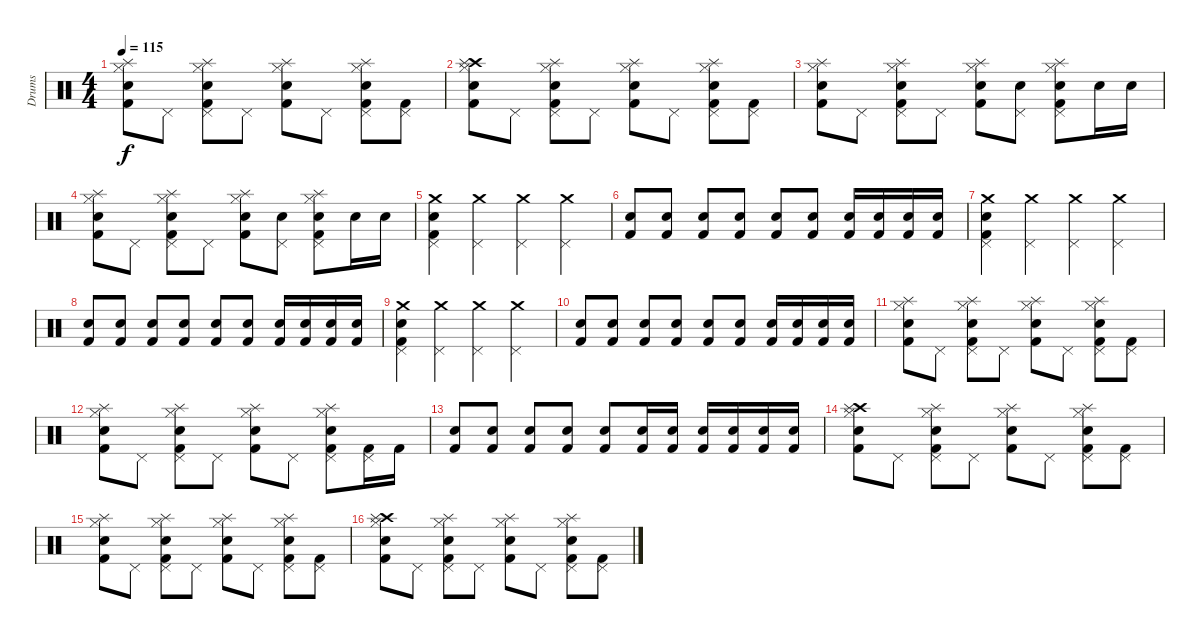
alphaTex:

\track ("Drums" "Drums") {instrument percussion}
\staff {score}
\articulation defaults
\ts (4 4)
\tempo 115
\clef neutral
\ks c
("Hi-Hat (closed)" "Snare (hit) 2" "Splash (hit)" "Kick (hit) 2").8{dy f} "Pedal Hi-Hat (hit)".8 ("Hi-Hat (closed)" "Pedal Hi-Hat (hit)" "Electric Snare (hit)" "Splash (hit)" "Kick (hit) 2").8 "Pedal Hi-Hat (hit)".8 ("Hi-Hat (closed)" "Snare (hit) 2" "Splash (hit)" "Kick (hit) 2").8 "Pedal Hi-Hat (hit)".8 ("Hi-Hat (closed)" "Pedal Hi-Hat (hit)" "Electric Snare (hit)" "Splash (hit)" "Kick (hit) 2").8 ("Pedal Hi-Hat (hit)" "Kick (hit) 2").8 |
("Hi-Hat (closed)" "Crash high (hit)" "Snare (hit) 2" "Splash (hit)" "Kick (hit) 2").8 "Pedal Hi-Hat (hit)".8 ("Hi-Hat (closed)" "Pedal Hi-Hat (hit)" "Electric Snare (hit)" "Splash (hit)" "Kick (hit) 2").8 "Pedal Hi-Hat (hit)".8 ("Hi-Hat (closed)" "Snare (hit) 2" "Splash (hit)" "Kick (hit) 2").8 "Pedal Hi-Hat (hit)".8 ("Hi-Hat (closed)" "Pedal Hi-Hat (hit)" "Electric Snare (hit)" "Splash (hit)" "Kick (hit) 2").8 ("Pedal Hi-Hat (hit)" "Kick (hit) 2").8 |
("Hi-Hat (closed)" "Snare (hit) 2" "Splash (hit)" "Kick (hit) 2").8 "Pedal Hi-Hat (hit)".8 ("Hi-Hat (closed)" "Pedal Hi-Hat (hit)" "Electric Snare (hit)" "Splash (hit)" "Kick (hit) 2").8 "Pedal Hi-Hat (hit)".8 ("Hi-Hat (closed)" "Snare (hit) 2" "Splash (hit)" "Kick (hit) 2").8 ("Pedal Hi-Hat (hit)" "Snare (hit) 2").8 ("Hi-Hat (closed)" "Pedal Hi-Hat (hit)" "Electric Snare (hit)" "Splash (hit)" "Kick (hit) 2").8 "Snare (hit) 2".16 "Electric Snare (hit)".16 |
("Hi-Hat (closed)" "Snare (hit) 2" "Splash (hit)" "Kick (hit) 2").8 "Pedal Hi-Hat (hit)".8 ("Hi-Hat (closed)" "Pedal Hi-Hat (hit)" "Electric Snare (hit)" "Splash (hit)" "Kick (hit) 2").8 "Pedal Hi-Hat (hit)".8 ("Hi-Hat (closed)" "Snare (hit) 2" "Splash (hit)" "Kick (hit) 2").8 ("Pedal Hi-Hat (hit)" "Snare (hit) 2").8 ("Hi-Hat (closed)" "Pedal Hi-Hat (hit)" "Electric Snare (hit)" "Splash (hit)" "Kick (hit) 2").8 "Snare (hit) 2".16 "Electric Snare (hit)".16 |
("Pedal Hi-Hat (hit)" "Crash medium (hit)" "Snare (hit) 2" "Kick (hit) 2").4 ("Pedal Hi-Hat (hit)" "Crash medium (hit)").4 ("Pedal Hi-Hat (hit)" "Crash medium (hit)").4 ("Pedal Hi-Hat (hit)" "Crash medium (hit)").4 |
("Snare (hit) 2" "Kick (hit) 2").8 ("Snare (hit) 2" "Kick (hit) 2").8 ("Snare (hit) 2" "Kick (hit) 2").8 ("Snare (hit) 2" "Kick (hit) 2").8 ("Snare (hit) 2" "Kick (hit) 2").8 ("Snare (hit) 2" "Kick (hit) 2").8 ("Snare (hit) 2" "Kick (hit) 2").16 ("Snare (hit) 2" "Kick (hit) 2").16 ("Snare (hit) 2" "Kick (hit) 2").16 ("Snare (hit) 2" "Kick (hit) 2").16 |
("Pedal Hi-Hat (hit)" "Crash medium (hit)" "Snare (hit) 2" "Kick (hit) 2").4 ("Pedal Hi-Hat (hit)" "Crash medium (hit)").4 ("Pedal Hi-Hat (hit)" "Crash medium (hit)").4 ("Pedal Hi-Hat (hit)" "Crash medium (hit)").4 |
("Snare (hit) 2" "Kick (hit) 2").8 ("Snare (hit) 2" "Kick (hit) 2").8 ("Snare (hit) 2" "Kick (hit) 2").8 ("Snare (hit) 2" "Kick (hit) 2").8 ("Snare (hit) 2" "Kick (hit) 2").8 ("Snare (hit) 2" "Kick (hit) 2").8 ("Snare (hit) 2" "Kick (hit) 2").16 ("Snare (hit) 2" "Kick (hit) 2").16 ("Snare (hit) 2" "Kick (hit) 2").16 ("Snare (hit) 2" "Kick (hit) 2").16 |
("Pedal Hi-Hat (hit)" "Crash medium (hit)" "Snare (hit) 2" "Kick (hit) 2").4 ("Pedal Hi-Hat (hit)" "Crash medium (hit)").4 ("Pedal Hi-Hat (hit)" "Crash medium (hit)").4 ("Pedal Hi-Hat (hit)" "Crash medium (hit)").4 |
("Snare (hit) 2" "Kick (hit) 2").8 ("Snare (hit) 2" "Kick (hit) 2").8 ("Snare (hit) 2" "Kick (hit) 2").8 ("Snare (hit) 2" "Kick (hit) 2").8 ("Snare (hit) 2" "Kick (hit) 2").8 ("Snare (hit) 2" "Kick (hit) 2").8 ("Snare (hit) 2" "Kick (hit) 2").16 ("Snare (hit) 2" "Kick (hit) 2").16 ("Snare (hit) 2" "Kick (hit) 2").16 ("Snare (hit) 2" "Kick (hit) 2").16 |
("Hi-Hat (closed)" "Snare (hit) 2" "Splash (hit)" "Kick (hit) 2").8 "Pedal Hi-Hat (hit)".8 ("Hi-Hat (closed)" "Pedal Hi-Hat (hit)" "Electric Snare (hit)" "Splash (hit)" "Kick (hit) 2").8 "Pedal Hi-Hat (hit)".8 ("Hi-Hat (closed)" "Snare (hit) 2" "Splash (hit)" "Kick (hit) 2").8 "Pedal Hi-Hat (hit)".8 ("Hi-Hat (closed)" "Pedal Hi-Hat (hit)" "Electric Snare (hit)" "Splash (hit)" "Kick (hit) 2").8 ("Pedal Hi-Hat (hit)" "Kick (hit) 2").8 |
("Hi-Hat (closed)" "Snare (hit) 2" "Splash (hit)" "Kick (hit) 2").8 "Pedal Hi-Hat (hit)".8 ("Hi-Hat (closed)" "Pedal Hi-Hat (hit)" "Electric Snare (hit)" "Splash (hit)" "Kick (hit) 2").8 "Pedal Hi-Hat (hit)".8 ("Hi-Hat (closed)" "Snare (hit) 2" "Splash (hit)" "Kick (hit) 2").8 "Pedal Hi-Hat (hit)".8 ("Hi-Hat (closed)" "Pedal Hi-Hat (hit)" "Electric Snare (hit)" "Splash (hit)" "Kick (hit) 2").8 ("Pedal Hi-Hat (hit)" "Kick (hit) 2").16 "Kick (hit) 2".16 |
("Snare (hit) 2" "Kick (hit) 2").8 ("Snare (hit) 2" "Kick (hit) 2").8 ("Snare (hit) 2" "Kick (hit) 2").8 ("Snare (hit) 2" "Kick (hit) 2").8 ("Snare (hit) 2" "Kick (hit) 2").8 ("Snare (hit) 2" "Kick (hit) 2").16 ("Snare (hit) 2" "Kick (hit) 2").16 ("Snare (hit) 2" "Kick (hit) 2").16 ("Snare (hit) 2" "Kick (hit) 2").16 ("Snare (hit) 2" "Kick (hit) 2").16 ("Snare (hit) 2" "Kick (hit) 2").16 |
("Hi-Hat (closed)" "Crash high (hit)" "Snare (hit) 2" "Splash (hit)" "Kick (hit) 2").8 "Pedal Hi-Hat (hit)".8 ("Hi-Hat (closed)" "Pedal Hi-Hat (hit)" "Electric Snare (hit)" "Splash (hit)" "Kick (hit) 2").8 "Pedal Hi-Hat (hit)".8 ("Hi-Hat (closed)" "Snare (hit) 2" "Splash (hit)" "Kick (hit) 2").8 "Pedal Hi-Hat (hit)".8 ("Hi-Hat (closed)" "Pedal Hi-Hat (hit)" "Electric Snare (hit)" "Splash (hit)" "Kick (hit) 2").8 ("Pedal Hi-Hat (hit)" "Kick (hit) 2").8 |
("Hi-Hat (closed)" "Snare (hit) 2" "Splash (hit)" "Kick (hit) 2").8 "Pedal Hi-Hat (hit)".8 ("Hi-Hat (closed)" "Pedal Hi-Hat (hit)" "Electric Snare (hit)" "Splash (hit)" "Kick (hit) 2").8 "Pedal Hi-Hat (hit)".8 ("Hi-Hat (closed)" "Snare (hit) 2" "Splash (hit)" "Kick (hit) 2").8 "Pedal Hi-Hat (hit)".8 ("Hi-Hat (closed)" "Pedal Hi-Hat (hit)" "Electric Snare (hit)" "Splash (hit)" "Kick (hit) 2").8 ("Pedal Hi-Hat (hit)" "Kick (hit) 2").8 |
("Hi-Hat (closed)" "Crash high (hit)" "Snare (hit) 2" "Splash (hit)" "Kick (hit) 2").8 "Pedal Hi-Hat (hit)".8 ("Hi-Hat (closed)" "Pedal Hi-Hat (hit)" "Electric Snare (hit)" "Splash (hit)" "Kick (hit) 2").8 "Pedal Hi-Hat (hit)".8 ("Hi-Hat (closed)" "Snare (hit) 2" "Splash (hit)" "Kick (hit) 2").8 "Pedal Hi-Hat (hit)".8 ("Hi-Hat (closed)" "Pedal Hi-Hat (hit)" "Electric Snare (hit)" "Splash (hit)" "Kick (hit) 2").8 ("Pedal Hi-Hat (hit)" "Kick (hit) 2").8
